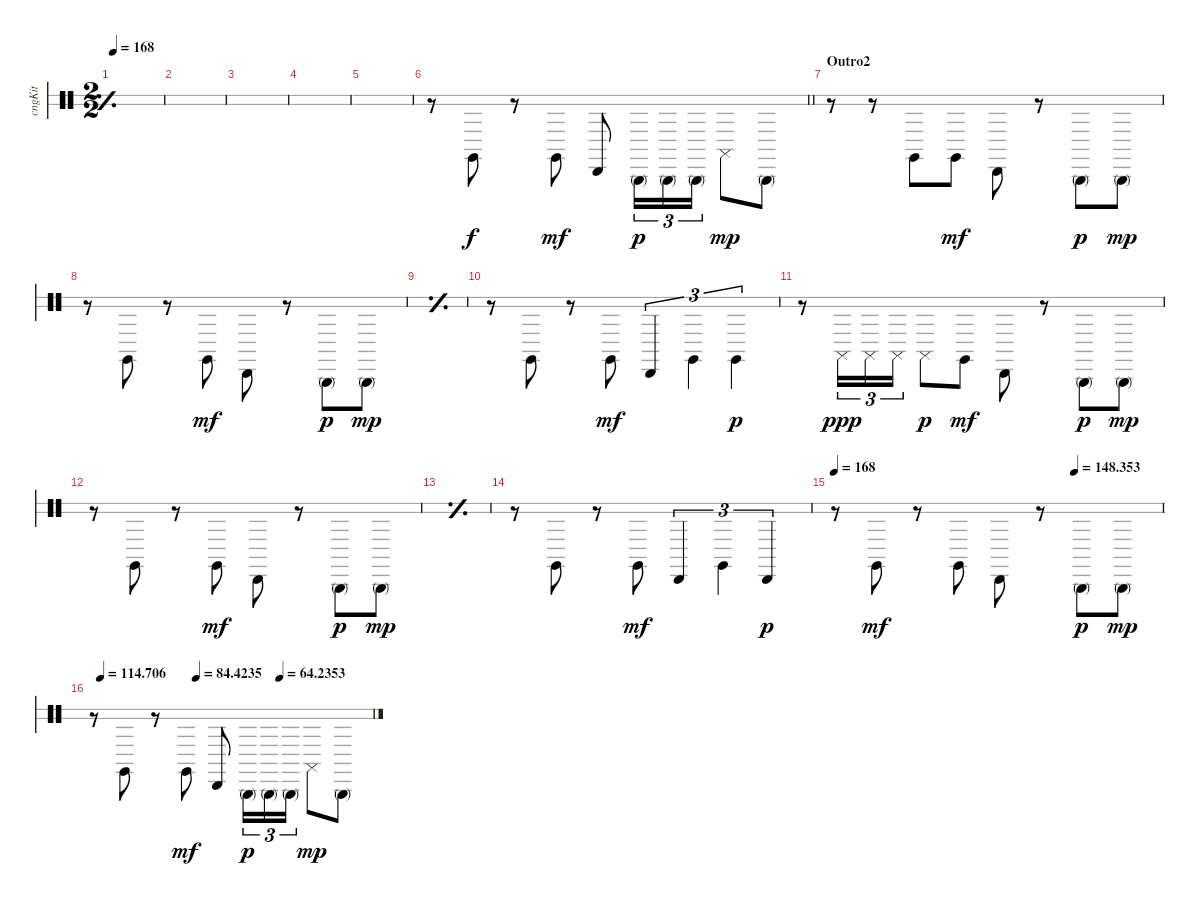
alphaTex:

\bracketExtendMode groupsimilarinstruments
\multiTrackTrackNamePolicy hidden
\otherSystemsTrackNameOrientation horizontal
\track ("Congas" "cngKit") {instrument percussion}
\staff {score 2}
\articulation defaults
\ts (2 2)
\tempo 168
\clef neutral
\simile simple
\ks c
|
|
|
|
|
\barLineRight lightlight
r.8{beam Down} "Conga high (hit)".8{beam Down} r.8{beam Down} "Conga high (hit)".8{dy mf beam Down} "Conga low (hit)".8{beam Up} "Conga high (mute)".16{tu (3 2) dy p beam Down} "Conga high (mute)".16{tu (3 2) beam Down} "Conga high (mute)".16{tu (3 2) beam Down} "Conga high (slap)".8{dy mp beam Down} "Conga high (mute)".8{beam Down} |
\section ("" "Outro2")
r.8{beam Down} r.8{beam Down} "Conga high (hit)".8{beam Down} "Conga high (hit)".8{dy mf beam Down} "Conga low (hit)".8{beam Down} r.8{beam Down} "Conga high (mute)".8{dy p beam Down} "Conga high (mute)".8{dy mp beam Down} |
r.8{beam Down} "Conga high (hit)".8{beam Down} r.8{beam Down} "Conga high (hit)".8{dy mf beam Down} "Conga low (hit)".8{beam Down} r.8{beam Down} "Conga high (mute)".8{dy p beam Down} "Conga high (mute)".8{dy mp beam Down} |
\simile simple
|
\simile none
r.8{beam Down} "Conga high (hit)".8{beam Down} r.8{beam Down} "Conga high (hit)".8{dy mf beam Down} "Conga low (hit)".4{tu (3 2) beam Up} "Conga high (hit)".4{tu (3 2) beam Down} "Conga high (hit)".4{tu (3 2) dy p beam Down} |
r.8{beam Down} "Conga high (slap)".16{tu (3 2) dy ppp beam Down} "Conga high (slap)".16{tu (3 2) beam Down} "Conga high (slap)".16{tu (3 2) beam Down} "Conga high (slap)".8{dy p beam Down} "Conga high (hit)".8{dy mf beam Down} "Conga low (hit)".8{beam Down} r.8{beam Down} "Conga high (mute)".8{dy p beam Down} "Conga high (mute)".8{dy mp beam Down} |
r.8{beam Down} "Conga high (hit)".8{beam Down} r.8{beam Down} "Conga high (hit)".8{dy mf beam Down} "Conga low (hit)".8{beam Down} r.8{beam Down} "Conga high (mute)".8{dy p beam Down} "Conga high (mute)".8{dy mp beam Down} |
\simile simple
\scale
0.2 |
\simile none
\scale
0.3875 r.8{beam Down} "Conga high (hit)".8{beam Down} r.8{beam Down} "Conga high (hit)".8{dy mf beam Down} "Conga low (hit)".4{tu (3 2) beam Up} "Conga high (hit)".4{tu (3 2) beam Down} "Conga low (hit)".4{tu (3 2) dy p beam Up} |
\tempo 168
\tempo (148.353 0.734266)
\scale
0.4125 r.8{beam Down} "Conga high (hit)".8{dy mf beam Down} r.8{beam Down} "Conga high (hit)".8{beam Down} "Conga low (hit)".8{beam Down} r.8{beam Down} "Conga high (mute)".8{dy p beam Down} "Conga high (mute)".8{dy mp beam Down} |
\tempo (114.706 0.027972)
\tempo (84.4235 0.370629)
\tempo (64.2353 0.66875)
r.8{beam Down} "Conga high (hit)".8{beam Down} r.8{beam Down} "Conga high (hit)".8{dy mf beam Down} "Conga low (hit)".8{beam Up} "Conga high (mute)".16{tu (3 2) dy p beam Down} "Conga high (mute)".16{tu (3 2) beam Down} "Conga high (mute)".16{tu (3 2) beam Down} "Conga high (slap)".8{dy mp beam Down} "Conga high (mute)".8{beam Down}
